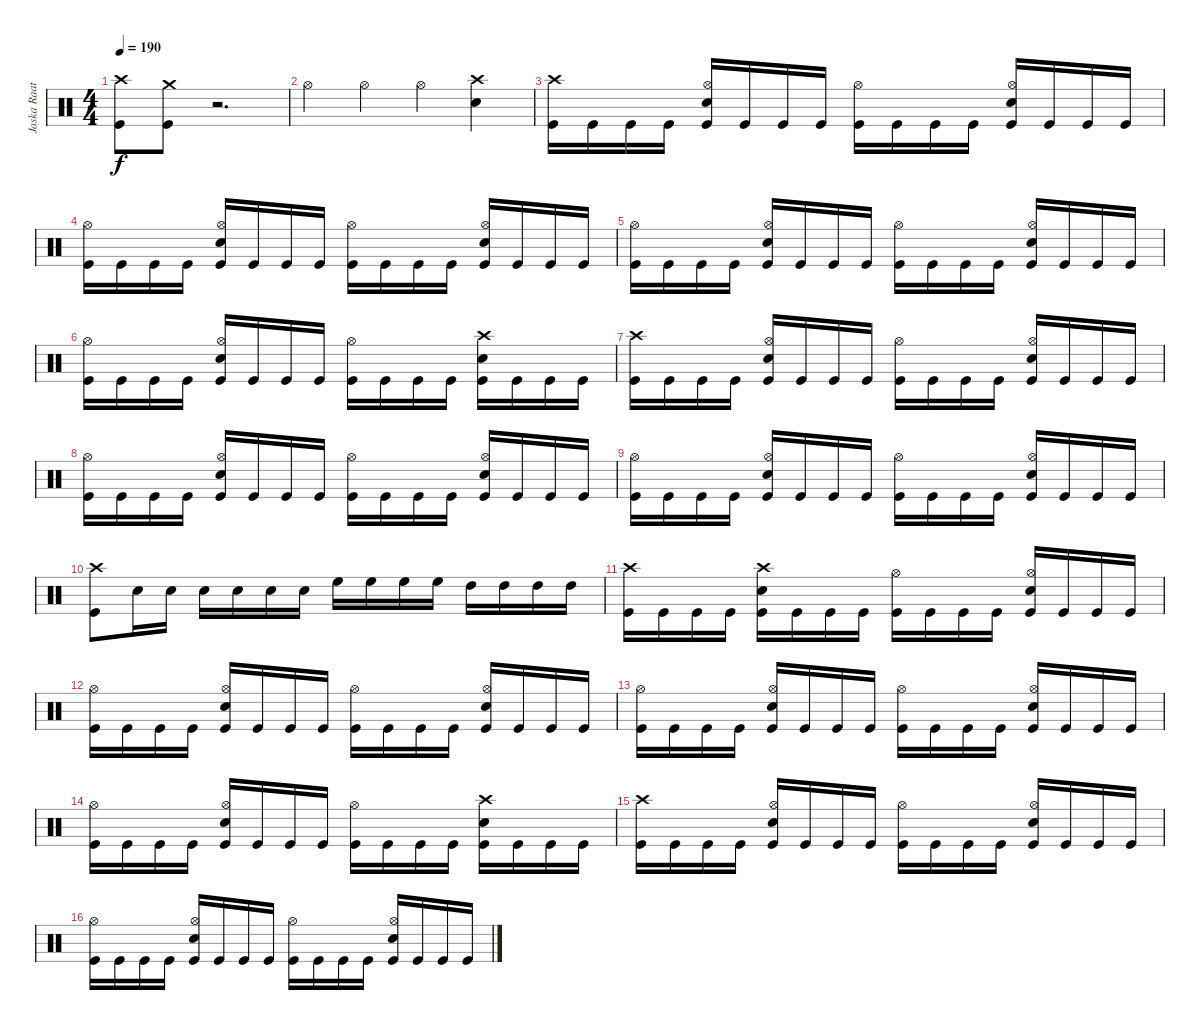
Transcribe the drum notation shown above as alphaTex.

\track ("Jaska Raatikainen" "Jaska Raat") {instrument percussion}
\staff {score}
\articulation defaults
\ts (4 4)
\tempo 190
\clef neutral
\ks c
("Crash high (hit)" "Kick (hit)").8{dy f} ("Crash medium (hit)" "Kick (hit)").8 r.2{d} |
"Hi-Hat (open)".4 "Hi-Hat (open)".4 "Hi-Hat (open)".4 ("Crash high (hit)" "Snare (hit) 2").4 |
("Crash high (hit)" "Kick (hit)").16 "Kick (hit)".16 "Kick (hit)".16 "Kick (hit)".16 ("Hi-Hat (open)" "Snare (hit) 2" "Kick (hit)").16 "Kick (hit)".16 "Kick (hit)".16 "Kick (hit)".16 ("Hi-Hat (open)" "Kick (hit)").16 "Kick (hit)".16 "Kick (hit)".16 "Kick (hit)".16 ("Hi-Hat (open)" "Snare (hit) 2" "Kick (hit)").16 "Kick (hit)".16 "Kick (hit)".16 "Kick (hit)".16 |
("Hi-Hat (open)" "Kick (hit)").16 "Kick (hit)".16 "Kick (hit)".16 "Kick (hit)".16 ("Hi-Hat (open)" "Snare (hit) 2" "Kick (hit)").16 "Kick (hit)".16 "Kick (hit)".16 "Kick (hit)".16 ("Hi-Hat (open)" "Kick (hit)").16 "Kick (hit)".16 "Kick (hit)".16 "Kick (hit)".16 ("Hi-Hat (open)" "Snare (hit) 2" "Kick (hit)").16 "Kick (hit)".16 "Kick (hit)".16 "Kick (hit)".16 |
("Hi-Hat (open)" "Kick (hit)").16 "Kick (hit)".16 "Kick (hit)".16 "Kick (hit)".16 ("Hi-Hat (open)" "Snare (hit) 2" "Kick (hit)").16 "Kick (hit)".16 "Kick (hit)".16 "Kick (hit)".16 ("Hi-Hat (open)" "Kick (hit)").16 "Kick (hit)".16 "Kick (hit)".16 "Kick (hit)".16 ("Hi-Hat (open)" "Snare (hit) 2" "Kick (hit)").16 "Kick (hit)".16 "Kick (hit)".16 "Kick (hit)".16 |
("Hi-Hat (open)" "Kick (hit)").16 "Kick (hit)".16 "Kick (hit)".16 "Kick (hit)".16 ("Hi-Hat (open)" "Snare (hit) 2" "Kick (hit)").16 "Kick (hit)".16 "Kick (hit)".16 "Kick (hit)".16 ("Hi-Hat (open)" "Kick (hit)").16 "Kick (hit)".16 "Kick (hit)".16 "Kick (hit)".16 ("Crash high (hit)" "Snare (hit) 2" "Kick (hit)").16 "Kick (hit)".16 "Kick (hit)".16 "Kick (hit)".16 |
("Crash high (hit)" "Kick (hit)").16 "Kick (hit)".16 "Kick (hit)".16 "Kick (hit)".16 ("Hi-Hat (open)" "Snare (hit) 2" "Kick (hit)").16 "Kick (hit)".16 "Kick (hit)".16 "Kick (hit)".16 ("Hi-Hat (open)" "Kick (hit)").16 "Kick (hit)".16 "Kick (hit)".16 "Kick (hit)".16 ("Hi-Hat (open)" "Snare (hit) 2" "Kick (hit)").16 "Kick (hit)".16 "Kick (hit)".16 "Kick (hit)".16 |
("Hi-Hat (open)" "Kick (hit)").16 "Kick (hit)".16 "Kick (hit)".16 "Kick (hit)".16 ("Hi-Hat (open)" "Snare (hit) 2" "Kick (hit)").16 "Kick (hit)".16 "Kick (hit)".16 "Kick (hit)".16 ("Hi-Hat (open)" "Kick (hit)").16 "Kick (hit)".16 "Kick (hit)".16 "Kick (hit)".16 ("Hi-Hat (open)" "Snare (hit) 2" "Kick (hit)").16 "Kick (hit)".16 "Kick (hit)".16 "Kick (hit)".16 |
("Hi-Hat (open)" "Kick (hit)").16 "Kick (hit)".16 "Kick (hit)".16 "Kick (hit)".16 ("Hi-Hat (open)" "Snare (hit) 2" "Kick (hit)").16 "Kick (hit)".16 "Kick (hit)".16 "Kick (hit)".16 ("Hi-Hat (open)" "Kick (hit)").16 "Kick (hit)".16 "Kick (hit)".16 "Kick (hit)".16 ("Hi-Hat (open)" "Snare (hit) 2" "Kick (hit)").16 "Kick (hit)".16 "Kick (hit)".16 "Kick (hit)".16 |
("Crash high (hit)" "Kick (hit)").8 "Snare (hit) 2".16 "Snare (hit) 2".16 "Snare (hit) 2".16 "Snare (hit) 2".16 "Snare (hit) 2".16 "Snare (hit) 2".16 "High Floor Tom (hit)".16 "High Floor Tom (hit)".16 "High Floor Tom (hit)".16 "High Floor Tom (hit)".16 "High Tom (hit)".16 "High Tom (hit)".16 "High Tom (hit)".16 "High Tom (hit)".16 |
("Crash high (hit)" "Kick (hit)").16 "Kick (hit)".16 "Kick (hit)".16 "Kick (hit)".16 ("Crash high (hit)" "Snare (hit) 2" "Kick (hit)").16 "Kick (hit)".16 "Kick (hit)".16 "Kick (hit)".16 ("Hi-Hat (open)" "Kick (hit)").16 "Kick (hit)".16 "Kick (hit)".16 "Kick (hit)".16 ("Hi-Hat (open)" "Snare (hit) 2" "Kick (hit)").16 "Kick (hit)".16 "Kick (hit)".16 "Kick (hit)".16 |
("Hi-Hat (open)" "Kick (hit)").16 "Kick (hit)".16 "Kick (hit)".16 "Kick (hit)".16 ("Hi-Hat (open)" "Snare (hit) 2" "Kick (hit)").16 "Kick (hit)".16 "Kick (hit)".16 "Kick (hit)".16 ("Hi-Hat (open)" "Kick (hit)").16 "Kick (hit)".16 "Kick (hit)".16 "Kick (hit)".16 ("Hi-Hat (open)" "Snare (hit) 2" "Kick (hit)").16 "Kick (hit)".16 "Kick (hit)".16 "Kick (hit)".16 |
("Hi-Hat (open)" "Kick (hit)").16 "Kick (hit)".16 "Kick (hit)".16 "Kick (hit)".16 ("Hi-Hat (open)" "Snare (hit) 2" "Kick (hit)").16 "Kick (hit)".16 "Kick (hit)".16 "Kick (hit)".16 ("Hi-Hat (open)" "Kick (hit)").16 "Kick (hit)".16 "Kick (hit)".16 "Kick (hit)".16 ("Hi-Hat (open)" "Snare (hit) 2" "Kick (hit)").16 "Kick (hit)".16 "Kick (hit)".16 "Kick (hit)".16 |
("Hi-Hat (open)" "Kick (hit)").16 "Kick (hit)".16 "Kick (hit)".16 "Kick (hit)".16 ("Hi-Hat (open)" "Snare (hit) 2" "Kick (hit)").16 "Kick (hit)".16 "Kick (hit)".16 "Kick (hit)".16 ("Hi-Hat (open)" "Kick (hit)").16 "Kick (hit)".16 "Kick (hit)".16 "Kick (hit)".16 ("Crash high (hit)" "Snare (hit) 2" "Kick (hit)").16 "Kick (hit)".16 "Kick (hit)".16 "Kick (hit)".16 |
("Crash high (hit)" "Kick (hit)").16 "Kick (hit)".16 "Kick (hit)".16 "Kick (hit)".16 ("Hi-Hat (open)" "Snare (hit) 2" "Kick (hit)").16 "Kick (hit)".16 "Kick (hit)".16 "Kick (hit)".16 ("Hi-Hat (open)" "Kick (hit)").16 "Kick (hit)".16 "Kick (hit)".16 "Kick (hit)".16 ("Hi-Hat (open)" "Snare (hit) 2" "Kick (hit)").16 "Kick (hit)".16 "Kick (hit)".16 "Kick (hit)".16 |
("Hi-Hat (open)" "Kick (hit)").16 "Kick (hit)".16 "Kick (hit)".16 "Kick (hit)".16 ("Hi-Hat (open)" "Snare (hit) 2" "Kick (hit)").16 "Kick (hit)".16 "Kick (hit)".16 "Kick (hit)".16 ("Hi-Hat (open)" "Kick (hit)").16 "Kick (hit)".16 "Kick (hit)".16 "Kick (hit)".16 ("Hi-Hat (open)" "Snare (hit) 2" "Kick (hit)").16 "Kick (hit)".16 "Kick (hit)".16 "Kick (hit)".16
